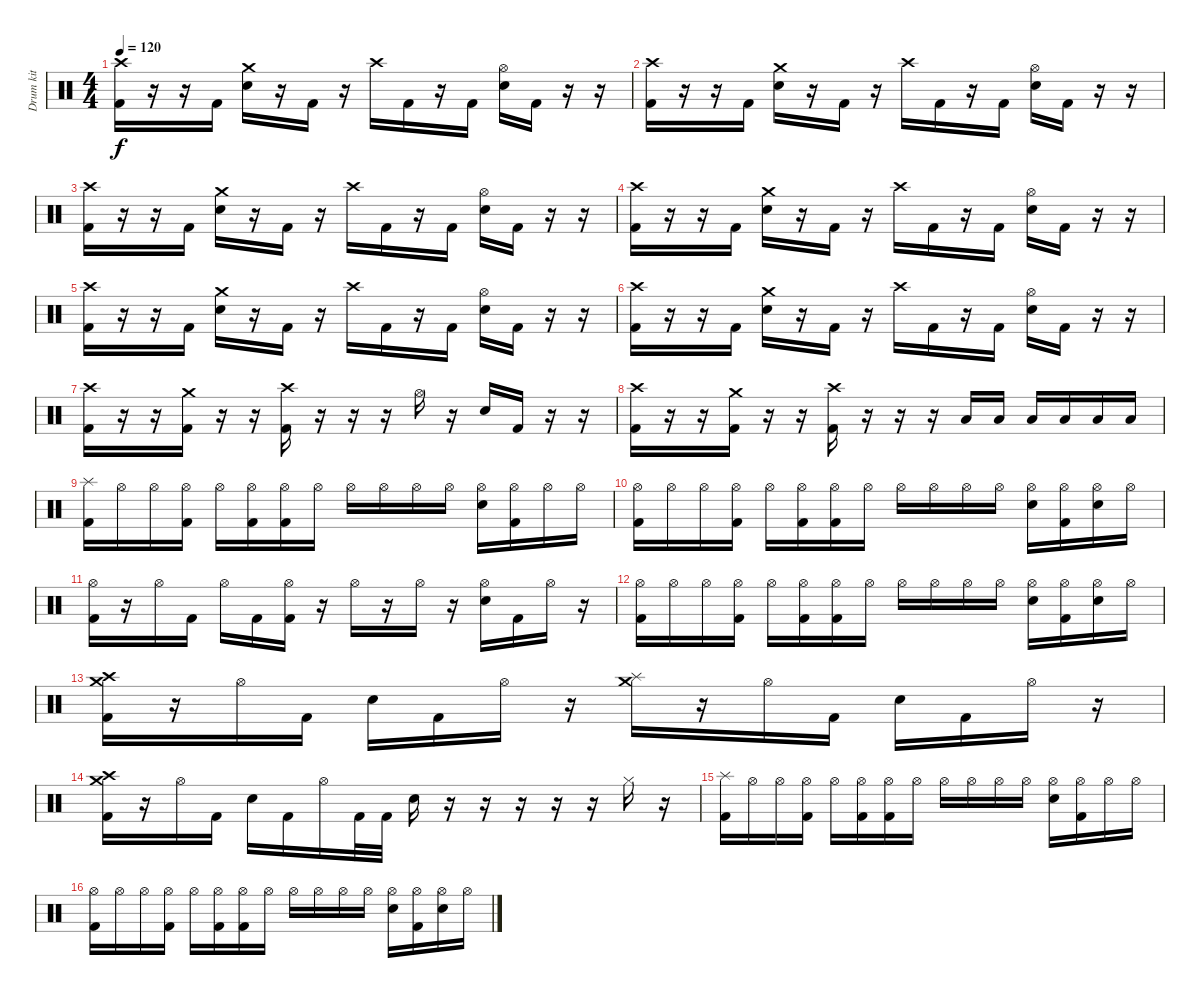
\track ("Drum kit" "Drum kit") {instrument percussion}
\staff {score}
\articulation defaults
\ts (4 4)
\tempo 120
\clef neutral
\ks c
("Kick (hit) 2" "Crash high (hit)").16{dy f} r.16 r.16 "Kick (hit) 2".16 ("Snare (hit) 2" "Crash medium (hit)").16 r.16 "Kick (hit) 2".16 r.16 "Crash high (hit)".16 "Kick (hit) 2".16 r.16 "Kick (hit) 2".16 ("Snare (hit) 2" "Hi-Hat (open)").16 "Kick (hit) 2".16 r.16 r.16 |
("Kick (hit) 2" "Crash high (hit)").16 r.16 r.16 "Kick (hit) 2".16 ("Snare (hit) 2" "Crash medium (hit)").16 r.16 "Kick (hit) 2".16 r.16 "Crash high (hit)".16 "Kick (hit) 2".16 r.16 "Kick (hit) 2".16 ("Snare (hit) 2" "Hi-Hat (open)").16 "Kick (hit) 2".16 r.16 r.16 |
("Kick (hit) 2" "Crash high (hit)").16 r.16 r.16 "Kick (hit) 2".16 ("Snare (hit) 2" "Crash medium (hit)").16 r.16 "Kick (hit) 2".16 r.16 "Crash high (hit)".16 "Kick (hit) 2".16 r.16 "Kick (hit) 2".16 ("Snare (hit) 2" "Hi-Hat (open)").16 "Kick (hit) 2".16 r.16 r.16 |
("Kick (hit) 2" "Crash high (hit)").16 r.16 r.16 "Kick (hit) 2".16 ("Snare (hit) 2" "Crash medium (hit)").16 r.16 "Kick (hit) 2".16 r.16 "Crash high (hit)".16 "Kick (hit) 2".16 r.16 "Kick (hit) 2".16 ("Snare (hit) 2" "Hi-Hat (open)").16 "Kick (hit) 2".16 r.16 r.16 |
("Kick (hit) 2" "Crash high (hit)").16 r.16 r.16 "Kick (hit) 2".16 ("Snare (hit) 2" "Crash medium (hit)").16 r.16 "Kick (hit) 2".16 r.16 "Crash high (hit)".16 "Kick (hit) 2".16 r.16 "Kick (hit) 2".16 ("Snare (hit) 2" "Hi-Hat (open)").16 "Kick (hit) 2".16 r.16 r.16 |
("Kick (hit) 2" "Crash high (hit)").16 r.16 r.16 "Kick (hit) 2".16 ("Snare (hit) 2" "Crash medium (hit)").16 r.16 "Kick (hit) 2".16 r.16 "Crash high (hit)".16 "Kick (hit) 2".16 r.16 "Kick (hit) 2".16 ("Snare (hit) 2" "Hi-Hat (open)").16 "Kick (hit) 2".16 r.16 r.16 |
("Crash high (hit)" "Kick (hit) 2").16 r.16 r.16 ("Crash medium (hit)" "Kick (hit) 2").16 r.16 r.16 ("Crash high (hit)" "Kick (hit) 2").16 r.16 r.16 r.16 "Hi-Hat (open)".16 r.16 "Snare (hit) 2".16 "Kick (hit) 2".16 r.16 r.16 |
("Crash high (hit)" "Kick (hit) 2").16 r.16 r.16 ("Crash medium (hit)" "Kick (hit) 2").16 r.16 r.16 ("Crash high (hit)" "Kick (hit) 2").16 r.16 r.16 r.16 "Low Tom (hit)".16 "Low Tom (hit)".16 "Low Tom (hit)".16 "Low Tom (hit)".16 "Low Tom (hit)".16 "Low Tom (hit)".16 |
("Splash (hit)" "Kick (hit) 2").16 "Hi-Hat (open)".16 "Hi-Hat (open)".16 ("Hi-Hat (open)" "Kick (hit) 2").16 "Hi-Hat (open)".16 ("Hi-Hat (open)" "Kick (hit) 2").16 ("Hi-Hat (open)" "Kick (hit) 2").16 "Hi-Hat (open)".16 "Hi-Hat (open)".16 "Hi-Hat (open)".16 "Hi-Hat (open)".16 "Hi-Hat (open)".16 ("Hi-Hat (open)" "Snare (hit) 2").16 ("Hi-Hat (open)" "Kick (hit) 2").16 "Hi-Hat (open)".16 "Hi-Hat (open)".16 |
("Hi-Hat (open)" "Kick (hit) 2").16 "Hi-Hat (open)".16 "Hi-Hat (open)".16 ("Hi-Hat (open)" "Kick (hit) 2").16 "Hi-Hat (open)".16 ("Hi-Hat (open)" "Kick (hit) 2").16 ("Hi-Hat (open)" "Kick (hit) 2").16 "Hi-Hat (open)".16 "Hi-Hat (open)".16 "Hi-Hat (open)".16 "Hi-Hat (open)".16 "Hi-Hat (open)".16 ("Hi-Hat (open)" "Snare (hit) 2").16 ("Hi-Hat (open)" "Kick (hit) 2").16 ("Hi-Hat (open)" "Snare (hit) 2").16 "Hi-Hat (open)".16 |
("Hi-Hat (open)" "Kick (hit) 2").16 r.16 "Hi-Hat (open)".16 "Kick (hit) 2".16 "Hi-Hat (open)".16 "Kick (hit) 2".16 ("Hi-Hat (open)" "Kick (hit) 2").16 r.16 "Hi-Hat (open)".16 r.16 "Hi-Hat (open)".16 r.16 ("Hi-Hat (open)" "Snare (hit) 2").16 "Kick (hit) 2".16 "Hi-Hat (open)".16 r.16 |
("Hi-Hat (open)" "Kick (hit) 2").16 "Hi-Hat (open)".16 "Hi-Hat (open)".16 ("Hi-Hat (open)" "Kick (hit) 2").16 "Hi-Hat (open)".16 ("Hi-Hat (open)" "Kick (hit) 2").16 ("Hi-Hat (open)" "Kick (hit) 2").16 "Hi-Hat (open)".16 "Hi-Hat (open)".16 "Hi-Hat (open)".16 "Hi-Hat (open)".16 "Hi-Hat (open)".16 ("Hi-Hat (open)" "Snare (hit) 2").16 ("Hi-Hat (open)" "Kick (hit) 2").16 ("Hi-Hat (open)" "Snare (hit) 2").16 "Hi-Hat (open)".16 |
("Crash high (hit)" "Crash medium (hit)" "Kick (hit) 2").16 r.16 "Hi-Hat (open)".16 "Kick (hit) 2".16 "Snare (hit) 2".16 "Kick (hit) 2".16 "Hi-Hat (open)".16 r.16 ("Splash (hit)" "Crash medium (hit)").16 r.16 "Hi-Hat (open)".16 "Kick (hit) 2".16 "Snare (hit) 2".16 "Kick (hit) 2".16 "Hi-Hat (open)".16 r.16 |
("Crash high (hit)" "Crash medium (hit)" "Kick (hit) 2").16 r.16 "Hi-Hat (open)".16 "Kick (hit) 2".16 "Snare (hit) 2".16 "Kick (hit) 2".16 "Hi-Hat (open)".16 "Kick (hit) 2".32 "Kick (hit) 2".32 "Snare (hit) 2".16 r.16 r.16 r.16 r.16 r.16 "Hi-Hat (closed)".16 r.16 |
("Splash (hit)" "Kick (hit) 2").16 "Hi-Hat (open)".16 "Hi-Hat (open)".16 ("Hi-Hat (open)" "Kick (hit) 2").16 "Hi-Hat (open)".16 ("Hi-Hat (open)" "Kick (hit) 2").16 ("Hi-Hat (open)" "Kick (hit) 2").16 "Hi-Hat (open)".16 "Hi-Hat (open)".16 "Hi-Hat (open)".16 "Hi-Hat (open)".16 "Hi-Hat (open)".16 ("Hi-Hat (open)" "Snare (hit) 2").16 ("Hi-Hat (open)" "Kick (hit) 2").16 "Hi-Hat (open)".16 "Hi-Hat (open)".16 |
("Hi-Hat (open)" "Kick (hit) 2").16 "Hi-Hat (open)".16 "Hi-Hat (open)".16 ("Hi-Hat (open)" "Kick (hit) 2").16 "Hi-Hat (open)".16 ("Hi-Hat (open)" "Kick (hit) 2").16 ("Hi-Hat (open)" "Kick (hit) 2").16 "Hi-Hat (open)".16 "Hi-Hat (open)".16 "Hi-Hat (open)".16 "Hi-Hat (open)".16 "Hi-Hat (open)".16 ("Hi-Hat (open)" "Snare (hit) 2").16 ("Hi-Hat (open)" "Kick (hit) 2").16 ("Hi-Hat (open)" "Snare (hit) 2").16 "Hi-Hat (open)".16
